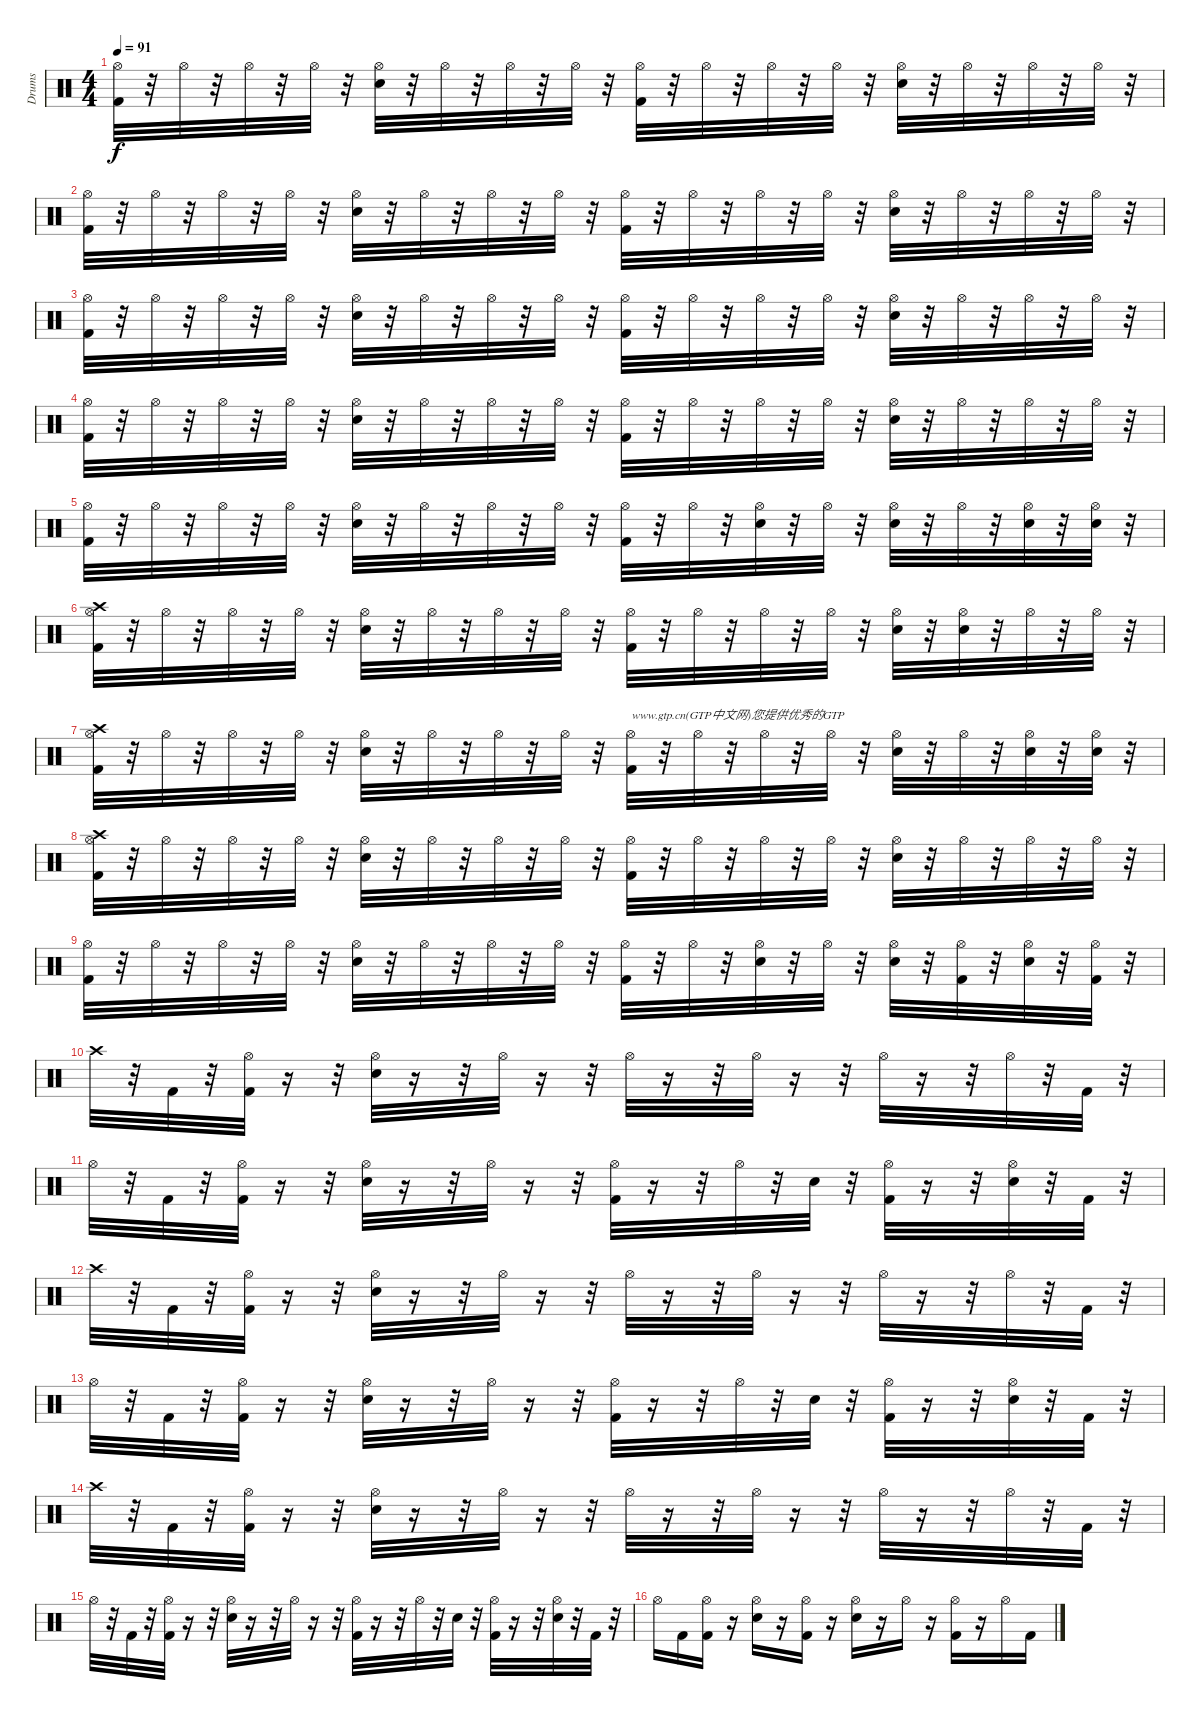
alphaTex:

\track ("Drums" "Drums") {instrument percussion}
\staff {score}
\articulation defaults
\ts (4 4)
\tempo 91
\clef neutral
\ks c
("Kick (hit) 2" "Hi-Hat (open)").32{dy f} r.32 "Hi-Hat (open)".32 r.32 "Hi-Hat (open)".32 r.32 "Hi-Hat (open)".32 r.32 ("Snare (hit) 2" "Hi-Hat (open)").32 r.32 "Hi-Hat (open)".32 r.32 "Hi-Hat (open)".32 r.32 "Hi-Hat (open)".32 r.32 ("Kick (hit) 2" "Hi-Hat (open)").32 r.32 "Hi-Hat (open)".32 r.32 "Hi-Hat (open)".32 r.32 "Hi-Hat (open)".32 r.32 ("Snare (hit) 2" "Hi-Hat (open)").32 r.32 "Hi-Hat (open)".32 r.32 "Hi-Hat (open)".32 r.32 "Hi-Hat (open)".32 r.32 |
("Kick (hit) 2" "Hi-Hat (open)").32 r.32 "Hi-Hat (open)".32 r.32 "Hi-Hat (open)".32 r.32 "Hi-Hat (open)".32 r.32 ("Snare (hit) 2" "Hi-Hat (open)").32 r.32 "Hi-Hat (open)".32 r.32 "Hi-Hat (open)".32 r.32 "Hi-Hat (open)".32 r.32 ("Kick (hit) 2" "Hi-Hat (open)").32 r.32 "Hi-Hat (open)".32 r.32 "Hi-Hat (open)".32 r.32 "Hi-Hat (open)".32 r.32 ("Snare (hit) 2" "Hi-Hat (open)").32 r.32 "Hi-Hat (open)".32 r.32 "Hi-Hat (open)".32 r.32 "Hi-Hat (open)".32 r.32 |
("Kick (hit) 2" "Hi-Hat (open)").32 r.32 "Hi-Hat (open)".32 r.32 "Hi-Hat (open)".32 r.32 "Hi-Hat (open)".32 r.32 ("Snare (hit) 2" "Hi-Hat (open)").32 r.32 "Hi-Hat (open)".32 r.32 "Hi-Hat (open)".32 r.32 "Hi-Hat (open)".32 r.32 ("Kick (hit) 2" "Hi-Hat (open)").32 r.32 "Hi-Hat (open)".32 r.32 "Hi-Hat (open)".32 r.32 "Hi-Hat (open)".32 r.32 ("Snare (hit) 2" "Hi-Hat (open)").32 r.32 "Hi-Hat (open)".32 r.32 "Hi-Hat (open)".32 r.32 "Hi-Hat (open)".32 r.32 |
("Kick (hit) 2" "Hi-Hat (open)").32 r.32 "Hi-Hat (open)".32 r.32 "Hi-Hat (open)".32 r.32 "Hi-Hat (open)".32 r.32 ("Snare (hit) 2" "Hi-Hat (open)").32 r.32 "Hi-Hat (open)".32 r.32 "Hi-Hat (open)".32 r.32 "Hi-Hat (open)".32 r.32 ("Kick (hit) 2" "Hi-Hat (open)").32 r.32 "Hi-Hat (open)".32 r.32 "Hi-Hat (open)".32 r.32 "Hi-Hat (open)".32 r.32 ("Snare (hit) 2" "Hi-Hat (open)").32 r.32 "Hi-Hat (open)".32 r.32 "Hi-Hat (open)".32 r.32 "Hi-Hat (open)".32 r.32 |
("Kick (hit) 2" "Hi-Hat (open)").32 r.32 "Hi-Hat (open)".32 r.32 "Hi-Hat (open)".32 r.32 "Hi-Hat (open)".32 r.32 ("Snare (hit) 2" "Hi-Hat (open)").32 r.32 "Hi-Hat (open)".32 r.32 "Hi-Hat (open)".32 r.32 "Hi-Hat (open)".32 r.32 ("Kick (hit) 2" "Hi-Hat (open)").32 r.32 "Hi-Hat (open)".32 r.32 ("Snare (hit) 2" "Hi-Hat (open)").32 r.32 "Hi-Hat (open)".32 r.32 ("Snare (hit) 2" "Hi-Hat (open)").32 r.32 "Hi-Hat (open)".32 r.32 ("Snare (hit) 2" "Hi-Hat (open)").32 r.32 ("Snare (hit) 2" "Hi-Hat (open)").32 r.32 |
("Crash high (hit)" "Kick (hit) 2" "Hi-Hat (open)").32 r.32 "Hi-Hat (open)".32 r.32 "Hi-Hat (open)".32 r.32 "Hi-Hat (open)".32 r.32 ("Snare (hit) 2" "Hi-Hat (open)").32 r.32 "Hi-Hat (open)".32 r.32 "Hi-Hat (open)".32 r.32 "Hi-Hat (open)".32 r.32 ("Kick (hit) 2" "Hi-Hat (open)").32 r.32 "Hi-Hat (open)".32 r.32 "Hi-Hat (open)".32 r.32 "Hi-Hat (open)".32 r.32 ("Snare (hit) 2" "Hi-Hat (open)").32 r.32 ("Snare (hit) 2" "Hi-Hat (open)").32 r.32 "Hi-Hat (open)".32 r.32 "Hi-Hat (open)".32 r.32 |
("Crash high (hit)" "Kick (hit) 2" "Hi-Hat (open)").32 r.32 "Hi-Hat (open)".32 r.32 "Hi-Hat (open)".32 r.32 "Hi-Hat (open)".32 r.32 ("Snare (hit) 2" "Hi-Hat (open)").32 r.32 "Hi-Hat (open)".32 r.32 "Hi-Hat (open)".32 r.32 "Hi-Hat (open)".32 r.32 ("Kick (hit) 2" "Hi-Hat (open)").32{txt "www.gtp.cn(GTP中文网)您提供优秀的GTP"} r.32 "Hi-Hat (open)".32 r.32 "Hi-Hat (open)".32 r.32 "Hi-Hat (open)".32 r.32 ("Snare (hit) 2" "Hi-Hat (open)").32 r.32 "Hi-Hat (open)".32 r.32 ("Snare (hit) 2" "Hi-Hat (open)").32 r.32 ("Snare (hit) 2" "Hi-Hat (open)").32 r.32 |
("Crash high (hit)" "Kick (hit) 2" "Hi-Hat (open)").32 r.32 "Hi-Hat (open)".32 r.32 "Hi-Hat (open)".32 r.32 "Hi-Hat (open)".32 r.32 ("Snare (hit) 2" "Hi-Hat (open)").32 r.32 "Hi-Hat (open)".32 r.32 "Hi-Hat (open)".32 r.32 "Hi-Hat (open)".32 r.32 ("Kick (hit) 2" "Hi-Hat (open)").32 r.32 "Hi-Hat (open)".32 r.32 "Hi-Hat (open)".32 r.32 "Hi-Hat (open)".32 r.32 ("Snare (hit) 2" "Hi-Hat (open)").32 r.32 "Hi-Hat (open)".32 r.32 "Hi-Hat (open)".32 r.32 "Hi-Hat (open)".32 r.32 |
("Kick (hit) 2" "Hi-Hat (open)").32 r.32 "Hi-Hat (open)".32 r.32 "Hi-Hat (open)".32 r.32 "Hi-Hat (open)".32 r.32 ("Snare (hit) 2" "Hi-Hat (open)").32 r.32 "Hi-Hat (open)".32 r.32 "Hi-Hat (open)".32 r.32 "Hi-Hat (open)".32 r.32 ("Kick (hit) 2" "Hi-Hat (open)").32 r.32 "Hi-Hat (open)".32 r.32 ("Snare (hit) 2" "Hi-Hat (open)").32 r.32 "Hi-Hat (open)".32 r.32 ("Snare (hit) 2" "Hi-Hat (open)").32 r.32 ("Kick (hit) 2" "Hi-Hat (open)").32 r.32 ("Snare (hit) 2" "Hi-Hat (open)").32 r.32 ("Kick (hit) 2" "Hi-Hat (open)").32 r.32 |
"Crash high (hit)".32 r.32 "Kick (hit) 2".32 r.32 ("Hi-Hat (open)" "Kick (hit) 2").32 r.16 r.32 ("Hi-Hat (open)" "Snare (hit) 2").32 r.16 r.32 "Hi-Hat (open)".32 r.16 r.32 "Hi-Hat (open)".32 r.16 r.32 "Hi-Hat (open)".32 r.16 r.32 "Hi-Hat (open)".32 r.16 r.32 "Hi-Hat (open)".32 r.32 "Kick (hit) 2".32 r.32 |
"Hi-Hat (open)".32 r.32 "Kick (hit) 2".32 r.32 ("Hi-Hat (open)" "Kick (hit) 2").32 r.16 r.32 ("Hi-Hat (open)" "Snare (hit) 2").32 r.16 r.32 "Hi-Hat (open)".32 r.16 r.32 ("Kick (hit) 2" "Hi-Hat (open)").32 r.16 r.32 "Hi-Hat (open)".32 r.32 "Snare (hit) 2".32 r.32 ("Kick (hit) 2" "Hi-Hat (open)").32 r.16 r.32 ("Snare (hit) 2" "Hi-Hat (open)").32 r.32 "Kick (hit) 2".32 r.32 |
"Crash high (hit)".32 r.32 "Kick (hit) 2".32 r.32 ("Hi-Hat (open)" "Kick (hit) 2").32 r.16 r.32 ("Hi-Hat (open)" "Snare (hit) 2").32 r.16 r.32 "Hi-Hat (open)".32 r.16 r.32 "Hi-Hat (open)".32 r.16 r.32 "Hi-Hat (open)".32 r.16 r.32 "Hi-Hat (open)".32 r.16 r.32 "Hi-Hat (open)".32 r.32 "Kick (hit) 2".32 r.32 |
"Hi-Hat (open)".32 r.32 "Kick (hit) 2".32 r.32 ("Hi-Hat (open)" "Kick (hit) 2").32 r.16 r.32 ("Hi-Hat (open)" "Snare (hit) 2").32 r.16 r.32 "Hi-Hat (open)".32 r.16 r.32 ("Kick (hit) 2" "Hi-Hat (open)").32 r.16 r.32 "Hi-Hat (open)".32 r.32 "Snare (hit) 2".32 r.32 ("Kick (hit) 2" "Hi-Hat (open)").32 r.16 r.32 ("Snare (hit) 2" "Hi-Hat (open)").32 r.32 "Kick (hit) 2".32 r.32 |
"Crash high (hit)".32 r.32 "Kick (hit) 2".32 r.32 ("Hi-Hat (open)" "Kick (hit) 2").32 r.16 r.32 ("Hi-Hat (open)" "Snare (hit) 2").32 r.16 r.32 "Hi-Hat (open)".32 r.16 r.32 "Hi-Hat (open)".32 r.16 r.32 "Hi-Hat (open)".32 r.16 r.32 "Hi-Hat (open)".32 r.16 r.32 "Hi-Hat (open)".32 r.32 "Kick (hit) 2".32 r.32 |
"Hi-Hat (open)".32 r.32 "Kick (hit) 2".32 r.32 ("Hi-Hat (open)" "Kick (hit) 2").32 r.16 r.32 ("Hi-Hat (open)" "Snare (hit) 2").32 r.16 r.32 "Hi-Hat (open)".32 r.16 r.32 ("Kick (hit) 2" "Hi-Hat (open)").32 r.16 r.32 "Hi-Hat (open)".32 r.32 "Snare (hit) 2".32 r.32 ("Kick (hit) 2" "Hi-Hat (open)").32 r.16 r.32 ("Snare (hit) 2" "Hi-Hat (open)").32 r.32 "Kick (hit) 2".32 r.32 |
"Hi-Hat (open)".16 "Kick (hit) 2".16 ("Hi-Hat (open)" "Kick (hit) 2").16 r.16 ("Hi-Hat (open)" "Snare (hit) 2").16 r.16 ("Kick (hit) 2" "Hi-Hat (open)").16 r.16 ("Snare (hit) 2" "Hi-Hat (open)").16 r.16 "Hi-Hat (open)".16 r.16 ("Kick (hit) 2" "Hi-Hat (open)").16 r.16 "Hi-Hat (open)".16 "Kick (hit) 2".16
